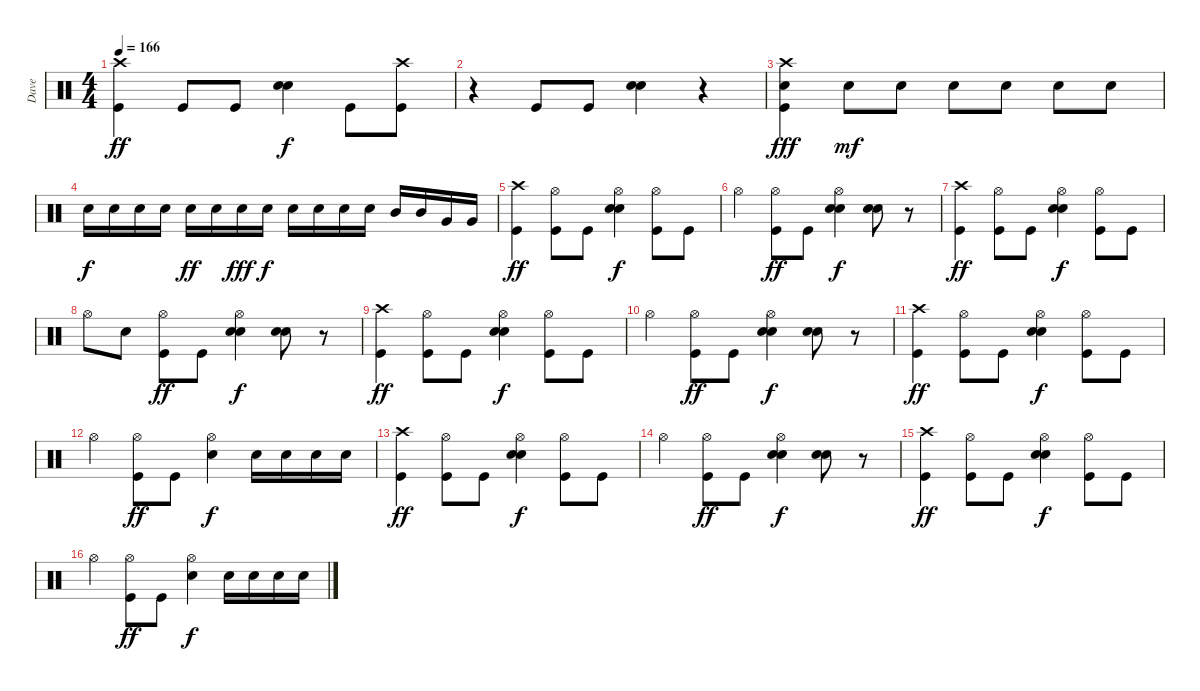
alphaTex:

\track ("Dave" "Dave") {instrument percussion}
\staff {score}
\articulation defaults
\ts (4 4)
\tempo 166
\clef neutral
\ks c
("Crash high (hit)" "Kick (hit)").4{dy ff} "Kick (hit)".8 "Kick (hit)".8 ("Snare (hit) 2" "Snare (hit) 2").4{dy f} "Kick (hit)".8 ("Crash high (hit)" "Kick (hit)").8 |
r.4 "Kick (hit)".8 "Kick (hit)".8 ("Snare (hit) 2" "Snare (hit) 2").4 r.4 |
("Crash high (hit)" "Snare (hit) 2" "Kick (hit)").4{dy fff} "Snare (hit) 2".8{dy mf} "Snare (hit) 2".8 "Snare (hit) 2".8 "Snare (hit) 2".8 "Snare (hit) 2".8 "Snare (hit) 2".8 |
"Snare (hit) 2".16{dy f} "Snare (hit) 2".16 "Snare (hit) 2".16 "Snare (hit) 2".16 "Snare (hit) 2".16{dy ff} "Snare (hit) 2".16 "Snare (hit) 2".16{dy fff} "Snare (hit) 2".16{dy f} "Snare (hit) 2".16 "Snare (hit) 2".16 "Snare (hit) 2".16 "Snare (hit) 2".16 "Mid Tom (hit)".16 "Mid Tom (hit)".16 "Very Low Tom (hit)".16 "Very Low Tom (hit)".16 |
("Crash high (hit)" "Kick (hit)").4{dy ff} ("Hi-Hat (open)" "Kick (hit)").8 "Kick (hit)".8 ("Hi-Hat (open)" "Snare (hit) 2" "Snare (hit) 2").4{dy f} ("Hi-Hat (open)" "Kick (hit)").8 "Kick (hit)".8 |
"Hi-Hat (open)".4 ("Hi-Hat (open)" "Kick (hit)").8{dy ff} "Kick (hit)".8 ("Hi-Hat (open)" "Snare (hit) 2" "Snare (hit) 2").4{dy f} ("Snare (hit) 2" "Snare (hit) 2").8 r.8 |
("Crash high (hit)" "Kick (hit)").4{dy ff} ("Hi-Hat (open)" "Kick (hit)").8 "Kick (hit)".8 ("Hi-Hat (open)" "Snare (hit) 2" "Snare (hit) 2").4{dy f} ("Hi-Hat (open)" "Kick (hit)").8 "Kick (hit)".8 |
"Hi-Hat (open)".8 "Snare (hit) 2".8 ("Hi-Hat (open)" "Kick (hit)").8{dy ff} "Kick (hit)".8 ("Hi-Hat (open)" "Snare (hit) 2" "Snare (hit) 2").4{dy f} ("Snare (hit) 2" "Snare (hit) 2").8 r.8 |
("Crash high (hit)" "Kick (hit)").4{dy ff} ("Hi-Hat (open)" "Kick (hit)").8 "Kick (hit)".8 ("Hi-Hat (open)" "Snare (hit) 2" "Snare (hit) 2").4{dy f} ("Hi-Hat (open)" "Kick (hit)").8 "Kick (hit)".8 |
"Hi-Hat (open)".4 ("Hi-Hat (open)" "Kick (hit)").8{dy ff} "Kick (hit)".8 ("Hi-Hat (open)" "Snare (hit) 2" "Snare (hit) 2").4{dy f} ("Snare (hit) 2" "Snare (hit) 2").8 r.8 |
("Crash high (hit)" "Kick (hit)").4{dy ff} ("Hi-Hat (open)" "Kick (hit)").8 "Kick (hit)".8 ("Hi-Hat (open)" "Snare (hit) 2" "Snare (hit) 2").4{dy f} ("Hi-Hat (open)" "Kick (hit)").8 "Kick (hit)".8 |
"Hi-Hat (open)".4 ("Hi-Hat (open)" "Kick (hit)").8{dy ff} "Kick (hit)".8 ("Hi-Hat (open)" "Snare (hit) 2").4{dy f} "Snare (hit) 2".16 "Snare (hit) 2".16 "Snare (hit) 2".16 "Snare (hit) 2".16 |
("Crash high (hit)" "Kick (hit)").4{dy ff} ("Hi-Hat (open)" "Kick (hit)").8 "Kick (hit)".8 ("Hi-Hat (open)" "Snare (hit) 2" "Snare (hit) 2").4{dy f} ("Hi-Hat (open)" "Kick (hit)").8 "Kick (hit)".8 |
"Hi-Hat (open)".4 ("Hi-Hat (open)" "Kick (hit)").8{dy ff} "Kick (hit)".8 ("Hi-Hat (open)" "Snare (hit) 2" "Snare (hit) 2").4{dy f} ("Snare (hit) 2" "Snare (hit) 2").8 r.8 |
("Crash high (hit)" "Kick (hit)").4{dy ff} ("Hi-Hat (open)" "Kick (hit)").8 "Kick (hit)".8 ("Hi-Hat (open)" "Snare (hit) 2" "Snare (hit) 2").4{dy f} ("Hi-Hat (open)" "Kick (hit)").8 "Kick (hit)".8 |
"Hi-Hat (open)".4 ("Hi-Hat (open)" "Kick (hit)").8{dy ff} "Kick (hit)".8 ("Hi-Hat (open)" "Snare (hit) 2").4{dy f} "Snare (hit) 2".16 "Snare (hit) 2".16 "Snare (hit) 2".16 "Snare (hit) 2".16
